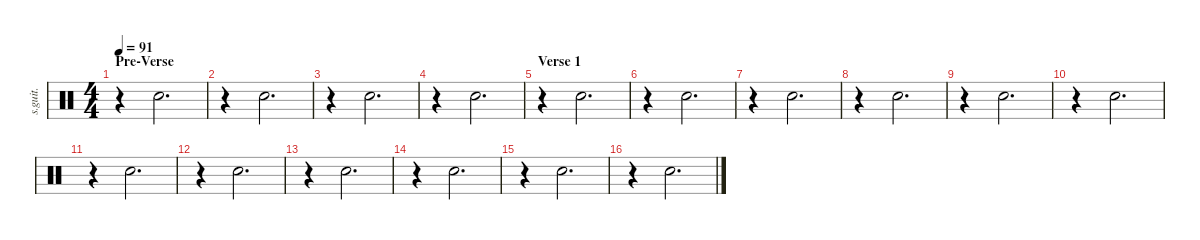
\defaultSystemsLayout 4
\hideDynamics
\bracketExtendMode nobrackets
\track ("Hand Clap" "s.guit.") {instrument percussion}
\staff {score}
\articulation defaults
\ts (4 4)
\section ("" "Pre-Verse")
\tempo 91
\clef neutral
\ks c
r.4{dy fff} "Hand Clap (hit)".2{d} |
r.4 "Hand Clap (hit)".2{d} |
r.4 "Hand Clap (hit)".2{d} |
r.4 "Hand Clap (hit)".2{d} |
\section ("" "Verse 1")
r.4 "Hand Clap (hit)".2{d} |
r.4 "Hand Clap (hit)".2{d} |
r.4 "Hand Clap (hit)".2{d} |
r.4 "Hand Clap (hit)".2{d} |
r.4 "Hand Clap (hit)".2{d} |
r.4 "Hand Clap (hit)".2{d} |
r.4 "Hand Clap (hit)".2{d} |
r.4 "Hand Clap (hit)".2{d} |
r.4 "Hand Clap (hit)".2{d} |
r.4 "Hand Clap (hit)".2{d} |
r.4 "Hand Clap (hit)".2{d} |
r.4 "Hand Clap (hit)".2{d}
